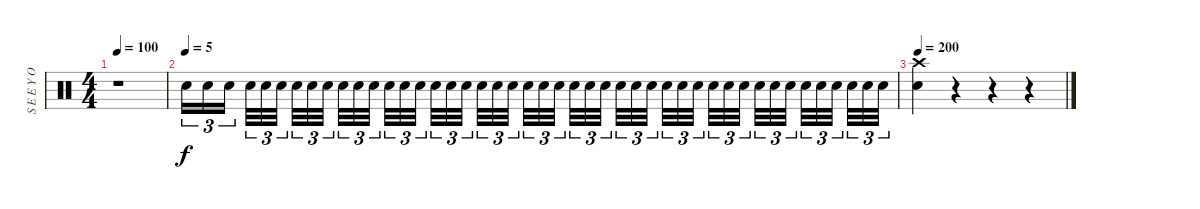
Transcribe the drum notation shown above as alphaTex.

\track ("S E E Y O U R " "S E E Y O ") {instrument percussion}
\staff {score}
\articulation defaults
\ts (4 4)
\tempo 100
\clef neutral
\ks c
r.1{dy f} |
\tempo (5)
"Electric Snare (hit)".16{tu (3 2)} "Electric Snare (hit)".16{tu (3 2)} "Electric Snare (hit)".16{tu (3 2)} "Electric Snare (hit)".32{tu (3 2)} "Electric Snare (hit)".32{tu (3 2)} "Electric Snare (hit)".32{tu (3 2)} "Electric Snare (hit)".32{tu (3 2)} "Electric Snare (hit)".32{tu (3 2)} "Electric Snare (hit)".32{tu (3 2)} "Electric Snare (hit)".32{tu (3 2)} "Electric Snare (hit)".32{tu (3 2)} "Electric Snare (hit)".32{tu (3 2)} "Electric Snare (hit)".32{tu (3 2)} "Electric Snare (hit)".32{tu (3 2)} "Electric Snare (hit)".32{tu (3 2)} "Electric Snare (hit)".32{tu (3 2)} "Electric Snare (hit)".32{tu (3 2)} "Electric Snare (hit)".32{tu (3 2)} "Electric Snare (hit)".32{tu (3 2)} "Electric Snare (hit)".32{tu (3 2)} "Electric Snare (hit)".32{tu (3 2)} "Electric Snare (hit)".32{tu (3 2)} "Electric Snare (hit)".32{tu (3 2)} "Electric Snare (hit)".32{tu (3 2)} "Electric Snare (hit)".32{tu (3 2)} "Electric Snare (hit)".32{tu (3 2)} "Electric Snare (hit)".32{tu (3 2)} "Electric Snare (hit)".32{tu (3 2)} "Electric Snare (hit)".32{tu (3 2)} "Electric Snare (hit)".32{tu (3 2)} "Electric Snare (hit)".32{tu (3 2)} "Electric Snare (hit)".32{tu (3 2)} "Electric Snare (hit)".32{tu (3 2)} "Electric Snare (hit)".32{tu (3 2)} "Electric Snare (hit)".32{tu (3 2)} "Electric Snare (hit)".32{tu (3 2)} "Electric Snare (hit)".32{tu (3 2)} "Electric Snare (hit)".32{tu (3 2)} "Electric Snare (hit)".32{tu (3 2)} "Electric Snare (hit)".32{tu (3 2)} "Electric Snare (hit)".32{tu (3 2)} "Electric Snare (hit)".32{tu (3 2)} "Electric Snare (hit)".32{tu (3 2)} "Electric Snare (hit)".32{tu (3 2)} "Electric Snare (hit)".32{tu (3 2)} |
\tempo 200
("Crash high (hit)" "Electric Snare (hit)").4 r.4 r.4 r.4
